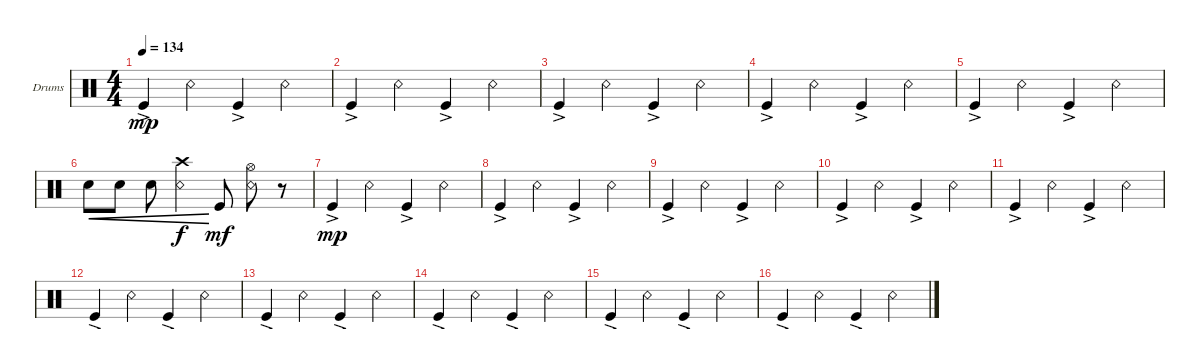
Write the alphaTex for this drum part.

\defaultSystemsLayout 4
\bracketExtendMode groupsimilarinstruments
\firstSystemTrackNameOrientation horizontal
\otherSystemsTrackNameOrientation horizontal
\track ("Drumkit" "Drums") {instrument percussion}
\staff {score}
\articulation defaults
\ts (4 4)
\tempo 134
\clef neutral
\ks c "Kick (hit)"{ac}.4{dy mp} "Snare (rim shot)".4 "Kick (hit)"{ac}.4 "Snare (rim shot)".4
|
"Kick (hit)"{ac}.4 "Snare (rim shot)".4 "Kick (hit)"{ac}.4 "Snare (rim shot)".4 |
"Kick (hit)"{ac}.4 "Snare (rim shot)".4 "Kick (hit)"{ac}.4 "Snare (rim shot)".4 |
"Kick (hit)"{ac}.4 "Snare (rim shot)".4 "Kick (hit)"{ac}.4 "Snare (rim shot)".4 |
"Kick (hit)"{ac}.4 "Snare (rim shot)".4 "Kick (hit)"{ac}.4 "Snare (rim shot)".4 |
"Snare (hit) 2".8{cre} "Snare (hit) 2".8{cre} "Snare (hit) 2".8{cre} ("Snare (rim shot)" "Crash high (hit)").4{cre dy f} "Kick (hit)".8{dy mf} ("Snare (rim shot)" "Hi-Hat (open)").8 r.8 |
"Kick (hit)"{ac}.4{dy mp} "Snare (rim shot)".4 "Kick (hit)"{ac}.4 "Snare (rim shot)".4 |
"Kick (hit)"{ac}.4 "Snare (rim shot)".4 "Kick (hit)"{ac}.4 "Snare (rim shot)".4 |
"Kick (hit)"{ac}.4 "Snare (rim shot)".4 "Kick (hit)"{ac}.4 "Snare (rim shot)".4 |
"Kick (hit)"{ac}.4 "Snare (rim shot)".4 "Kick (hit)"{ac}.4 "Snare (rim shot)".4 |
"Kick (hit)"{ac}.4 "Snare (rim shot)".4 "Kick (hit)"{ac}.4 "Snare (rim shot)".4 |
"Kick (hit)"{ac}.4 "Snare (rim shot)".4 "Kick (hit)"{ac}.4 "Snare (rim shot)".4 |
"Kick (hit)"{ac}.4 "Snare (rim shot)".4 "Kick (hit)"{ac}.4 "Snare (rim shot)".4 |
"Kick (hit)"{ac}.4 "Snare (rim shot)".4 "Kick (hit)"{ac}.4 "Snare (rim shot)".4 |
"Kick (hit)"{ac}.4 "Snare (rim shot)".4 "Kick (hit)"{ac}.4 "Snare (rim shot)".4 |
"Kick (hit)"{ac}.4 "Snare (rim shot)".4 "Kick (hit)"{ac}.4 "Snare (rim shot)".4
